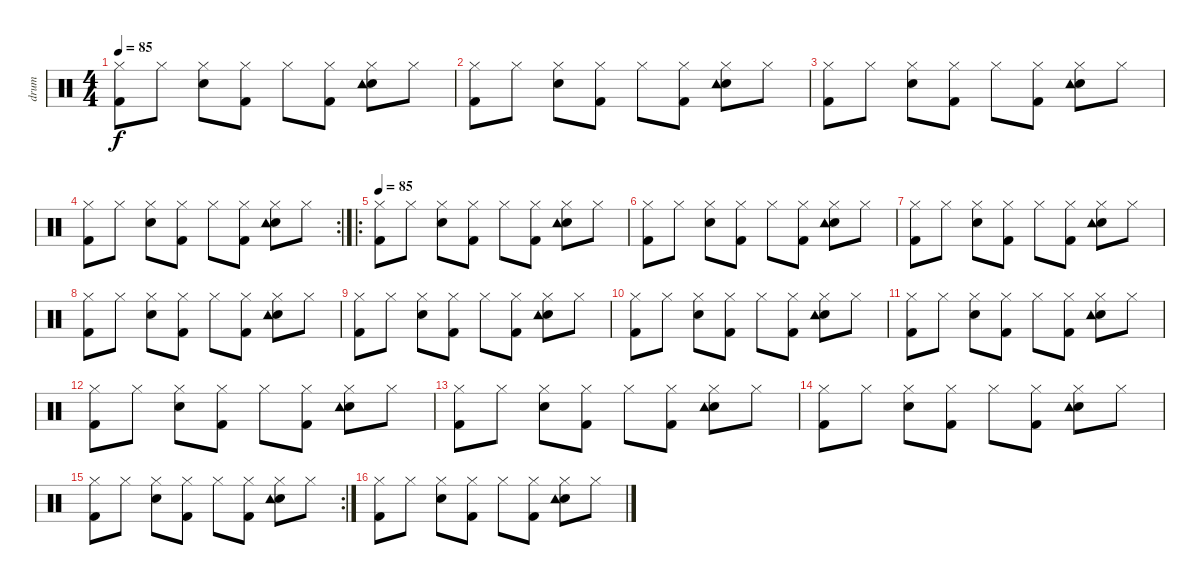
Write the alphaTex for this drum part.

\track ("drum" "drum") {instrument percussion}
\staff {score}
\articulation defaults
\ts (4 4)
\tempo 85
\clef neutral
\ks c
("Hi-Hat (closed)" "Kick (hit) 2").8{dy f} "Hi-Hat (closed)".8 ("Hi-Hat (closed)" "Electric Snare (hit)").8 ("Hi-Hat (closed)" "Kick (hit) 2").8 "Hi-Hat (closed)".8 ("Hi-Hat (closed)" "Kick (hit) 2").8 ("Hi-Hat (closed)" "Electric Snare (hit)" "Tambourine (hit)").8 "Hi-Hat (closed)".8 |
("Hi-Hat (closed)" "Kick (hit) 2").8 "Hi-Hat (closed)".8 ("Hi-Hat (closed)" "Electric Snare (hit)").8 ("Hi-Hat (closed)" "Kick (hit) 2").8 "Hi-Hat (closed)".8 ("Hi-Hat (closed)" "Kick (hit) 2").8 ("Hi-Hat (closed)" "Electric Snare (hit)" "Tambourine (hit)").8 "Hi-Hat (closed)".8 |
("Hi-Hat (closed)" "Kick (hit) 2").8 "Hi-Hat (closed)".8 ("Hi-Hat (closed)" "Electric Snare (hit)").8 ("Hi-Hat (closed)" "Kick (hit) 2").8 "Hi-Hat (closed)".8 ("Hi-Hat (closed)" "Kick (hit) 2").8 ("Hi-Hat (closed)" "Electric Snare (hit)" "Tambourine (hit)").8 "Hi-Hat (closed)".8 |
\rc 2
("Hi-Hat (closed)" "Kick (hit) 2").8 "Hi-Hat (closed)".8 ("Hi-Hat (closed)" "Electric Snare (hit)").8 ("Hi-Hat (closed)" "Kick (hit) 2").8 "Hi-Hat (closed)".8 ("Hi-Hat (closed)" "Kick (hit) 2").8 ("Hi-Hat (closed)" "Electric Snare (hit)" "Tambourine (hit)").8 "Hi-Hat (closed)".8 |
\ro
\tempo 85
("Hi-Hat (closed)" "Kick (hit) 2").8 "Hi-Hat (closed)".8 ("Hi-Hat (closed)" "Electric Snare (hit)").8 ("Hi-Hat (closed)" "Kick (hit) 2").8 "Hi-Hat (closed)".8 ("Hi-Hat (closed)" "Kick (hit) 2").8 ("Hi-Hat (closed)" "Electric Snare (hit)" "Tambourine (hit)").8 "Hi-Hat (closed)".8 |
("Hi-Hat (closed)" "Kick (hit) 2").8 "Hi-Hat (closed)".8 ("Hi-Hat (closed)" "Electric Snare (hit)").8 ("Hi-Hat (closed)" "Kick (hit) 2").8 "Hi-Hat (closed)".8 ("Hi-Hat (closed)" "Kick (hit) 2").8 ("Hi-Hat (closed)" "Electric Snare (hit)" "Tambourine (hit)").8 "Hi-Hat (closed)".8 |
("Hi-Hat (closed)" "Kick (hit) 2").8 "Hi-Hat (closed)".8 ("Hi-Hat (closed)" "Electric Snare (hit)").8 ("Hi-Hat (closed)" "Kick (hit) 2").8 "Hi-Hat (closed)".8 ("Hi-Hat (closed)" "Kick (hit) 2").8 ("Hi-Hat (closed)" "Electric Snare (hit)" "Tambourine (hit)").8 "Hi-Hat (closed)".8 |
("Hi-Hat (closed)" "Kick (hit) 2").8 "Hi-Hat (closed)".8 ("Hi-Hat (closed)" "Electric Snare (hit)").8 ("Hi-Hat (closed)" "Kick (hit) 2").8 "Hi-Hat (closed)".8 ("Hi-Hat (closed)" "Kick (hit) 2").8 ("Hi-Hat (closed)" "Electric Snare (hit)" "Tambourine (hit)").8 "Hi-Hat (closed)".8 |
("Hi-Hat (closed)" "Kick (hit) 2").8 "Hi-Hat (closed)".8 ("Hi-Hat (closed)" "Electric Snare (hit)").8 ("Hi-Hat (closed)" "Kick (hit) 2").8 "Hi-Hat (closed)".8 ("Hi-Hat (closed)" "Kick (hit) 2").8 ("Hi-Hat (closed)" "Electric Snare (hit)" "Tambourine (hit)").8 "Hi-Hat (closed)".8 |
("Hi-Hat (closed)" "Kick (hit) 2").8 "Hi-Hat (closed)".8 ("Hi-Hat (closed)" "Electric Snare (hit)").8 ("Hi-Hat (closed)" "Kick (hit) 2").8 "Hi-Hat (closed)".8 ("Hi-Hat (closed)" "Kick (hit) 2").8 ("Hi-Hat (closed)" "Electric Snare (hit)" "Tambourine (hit)").8 "Hi-Hat (closed)".8 |
("Hi-Hat (closed)" "Kick (hit) 2").8 "Hi-Hat (closed)".8 ("Hi-Hat (closed)" "Electric Snare (hit)").8 ("Hi-Hat (closed)" "Kick (hit) 2").8 "Hi-Hat (closed)".8 ("Hi-Hat (closed)" "Kick (hit) 2").8 ("Hi-Hat (closed)" "Electric Snare (hit)" "Tambourine (hit)").8 "Hi-Hat (closed)".8 |
("Hi-Hat (closed)" "Kick (hit) 2").8 "Hi-Hat (closed)".8 ("Hi-Hat (closed)" "Electric Snare (hit)").8 ("Hi-Hat (closed)" "Kick (hit) 2").8 "Hi-Hat (closed)".8 ("Hi-Hat (closed)" "Kick (hit) 2").8 ("Hi-Hat (closed)" "Electric Snare (hit)" "Tambourine (hit)").8 "Hi-Hat (closed)".8 |
("Hi-Hat (closed)" "Kick (hit) 2").8 "Hi-Hat (closed)".8 ("Hi-Hat (closed)" "Electric Snare (hit)").8 ("Hi-Hat (closed)" "Kick (hit) 2").8 "Hi-Hat (closed)".8 ("Hi-Hat (closed)" "Kick (hit) 2").8 ("Hi-Hat (closed)" "Electric Snare (hit)" "Tambourine (hit)").8 "Hi-Hat (closed)".8 |
("Hi-Hat (closed)" "Kick (hit) 2").8 "Hi-Hat (closed)".8 ("Hi-Hat (closed)" "Electric Snare (hit)").8 ("Hi-Hat (closed)" "Kick (hit) 2").8 "Hi-Hat (closed)".8 ("Hi-Hat (closed)" "Kick (hit) 2").8 ("Hi-Hat (closed)" "Electric Snare (hit)" "Tambourine (hit)").8 "Hi-Hat (closed)".8 |
\rc 2
("Hi-Hat (closed)" "Kick (hit) 2").8 "Hi-Hat (closed)".8 ("Hi-Hat (closed)" "Electric Snare (hit)").8 ("Hi-Hat (closed)" "Kick (hit) 2").8 "Hi-Hat (closed)".8 ("Hi-Hat (closed)" "Kick (hit) 2").8 ("Hi-Hat (closed)" "Electric Snare (hit)" "Tambourine (hit)").8 "Hi-Hat (closed)".8 |
("Hi-Hat (closed)" "Kick (hit) 2").8 "Hi-Hat (closed)".8 ("Hi-Hat (closed)" "Electric Snare (hit)").8 ("Hi-Hat (closed)" "Kick (hit) 2").8 "Hi-Hat (closed)".8 ("Hi-Hat (closed)" "Kick (hit) 2").8 ("Hi-Hat (closed)" "Electric Snare (hit)" "Tambourine (hit)").8 "Hi-Hat (closed)".8
